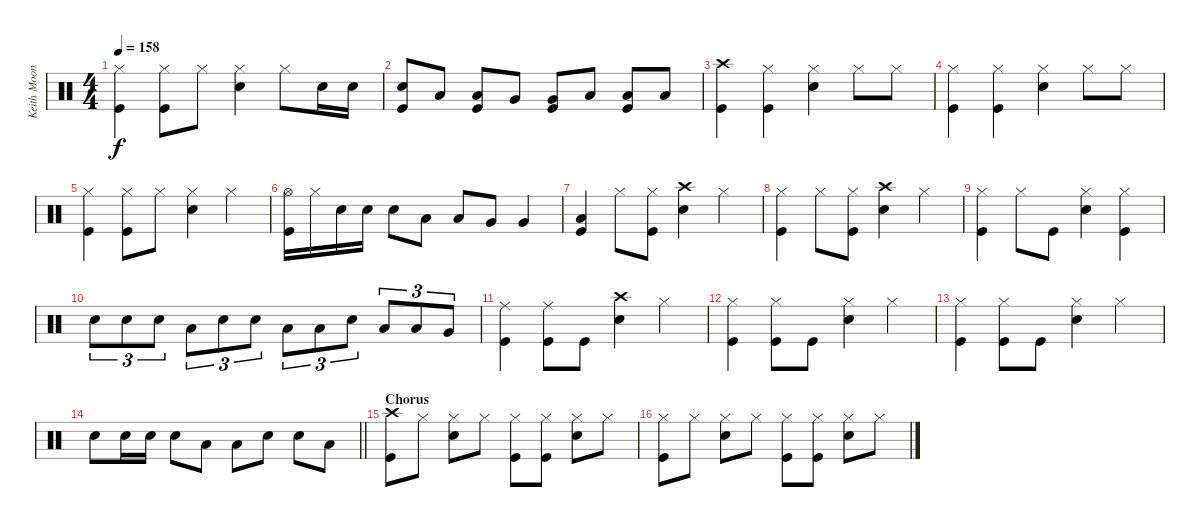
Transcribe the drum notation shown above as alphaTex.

\track ("Keith Moon" "Keith Moon") {instrument percussion}
\staff {score}
\articulation defaults
\ts (4 4)
\tempo 158
\clef neutral
\ks c
("Hi-Hat (closed)" "Kick (hit)").4{dy f} ("Hi-Hat (closed)" "Kick (hit)").8 "Hi-Hat (closed)".8 ("Hi-Hat (closed)" "Snare (hit) 2").4 "Hi-Hat (closed)".8 "Snare (hit) 2".16 "Snare (hit) 2".16 |
("Snare (hit) 2" "Kick (hit)").8 "Low Tom (hit)".8 ("Low Tom (hit)" "Kick (hit)").8 "Very Low Tom (hit)".8 ("Very Low Tom (hit)" "Kick (hit)").8 "Low Floor Tom (hit)".8 ("Low Floor Tom (hit)" "Kick (hit)").8 "Low Floor Tom (hit)".8 |
("Crash high (hit)" "Kick (hit)").4 ("Hi-Hat (closed)" "Kick (hit)").4 ("Hi-Hat (closed)" "Snare (hit) 2").4 "Hi-Hat (closed)".8 "Hi-Hat (closed)".8 |
("Hi-Hat (closed)" "Kick (hit)").4 ("Hi-Hat (closed)" "Kick (hit)").4 ("Hi-Hat (closed)" "Snare (hit) 2").4 "Hi-Hat (closed)".8 "Hi-Hat (closed)".8 |
("Hi-Hat (closed)" "Kick (hit)").4 ("Hi-Hat (closed)" "Kick (hit)").8 "Hi-Hat (closed)".8 ("Hi-Hat (closed)" "Snare (hit) 2").4 "Hi-Hat (closed)".4 |
("Hi-Hat (open)" "Kick (hit)").16 "Hi-Hat (closed)".16 "Snare (hit) 2".16 "Snare (hit) 2".16 "Snare (hit) 2".8 "Low Tom (hit)".8 "Low Tom (hit)".8 "Very Low Tom (hit)".8 "Very Low Tom (hit)".4 |
("Low Floor Tom (hit)" "Kick (hit)").4 "Hi-Hat (closed)".8 ("Hi-Hat (closed)" "Kick (hit)").8 ("Crash high (hit)" "Snare (hit) 2").4 "Hi-Hat (closed)".4 |
("Hi-Hat (closed)" "Kick (hit)").4 "Hi-Hat (closed)".8 ("Hi-Hat (closed)" "Kick (hit)").8 ("Crash high (hit)" "Snare (hit) 2").4 "Hi-Hat (closed)".4 |
("Hi-Hat (closed)" "Kick (hit)").4 "Hi-Hat (closed)".8 "Kick (hit)".8 ("Hi-Hat (closed)" "Snare (hit) 2").4 ("Hi-Hat (closed)" "Kick (hit)").4 |
"Snare (hit) 2".8{tu (3 2)} "Snare (hit) 2".8{tu (3 2)} "Snare (hit) 2".8{tu (3 2)} "Low Tom (hit)".8{tu (3 2)} "Snare (hit) 2".8{tu (3 2)} "Snare (hit) 2".8{tu (3 2)} "Low Tom (hit)".8{tu (3 2)} "Low Tom (hit)".8{tu (3 2)} "Snare (hit) 2".8{tu (3 2)} "Low Tom (hit)".8{tu (3 2)} "Low Tom (hit)".8{tu (3 2)} "Very Low Tom (hit)".8{tu (3 2)} |
("Ride (middle)" "Kick (hit)").4 ("Ride (middle)" "Kick (hit)").8 "Kick (hit)".8 ("Crash high (hit)" "Snare (hit) 2").4 "Hi-Hat (closed)".4 |
("Hi-Hat (closed)" "Kick (hit)").4 ("Hi-Hat (closed)" "Kick (hit)").8 "Kick (hit)".8 ("Hi-Hat (closed)" "Snare (hit) 2").4 "Hi-Hat (closed)".4 |
("Hi-Hat (closed)" "Kick (hit)").4 ("Hi-Hat (closed)" "Kick (hit)").8 "Kick (hit)".8 ("Hi-Hat (closed)" "Snare (hit) 2").4 "Hi-Hat (closed)".4 |
\barLineRight lightlight "Snare (hit) 2".8 "Snare (hit) 2".16 "Snare (hit) 2".16 "Snare (hit) 2".8 "Low Tom (hit)".8 "Low Tom (hit)".8 "Snare (hit) 2".8 "Snare (hit) 2".8 "Low Tom (hit)".8
|
\section ("" "Chorus")
("Crash high (hit)" "Kick (hit)").8 "Hi-Hat (closed)".8 ("Hi-Hat (closed)" "Snare (hit) 2").8 "Hi-Hat (closed)".8 ("Hi-Hat (closed)" "Kick (hit)").8 ("Hi-Hat (closed)" "Kick (hit)").8 ("Hi-Hat (closed)" "Snare (hit) 2").8 "Hi-Hat (closed)".8 |
("Hi-Hat (closed)" "Kick (hit)").8 "Hi-Hat (closed)".8 ("Hi-Hat (closed)" "Snare (hit) 2").8 "Hi-Hat (closed)".8 ("Hi-Hat (closed)" "Kick (hit)").8 ("Hi-Hat (closed)" "Kick (hit)").8 ("Hi-Hat (closed)" "Snare (hit) 2").8 "Hi-Hat (closed)".8
